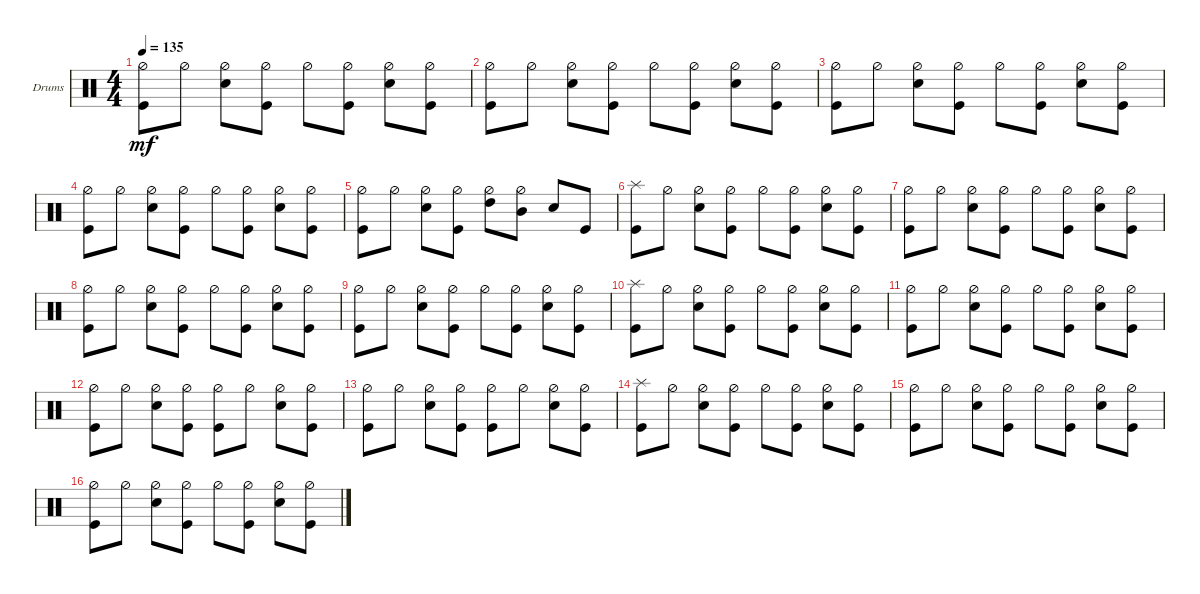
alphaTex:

\defaultSystemsLayout 4
\bracketExtendMode groupsimilarinstruments
\firstSystemTrackNameOrientation horizontal
\otherSystemsTrackNameOrientation horizontal
\track ("Drumkit" "Drums") {instrument percussion}
\staff {score}
\articulation defaults
\ts (4 4)
\tempo 135
\clef neutral
\ks c
("Kick (hit)" "Hi-Hat (half)").8{dy mf} "Hi-Hat (half)".8 ("Snare (hit) 2" "Hi-Hat (half)").8 ("Kick (hit)" "Hi-Hat (half)").8 "Hi-Hat (half)".8 ("Kick (hit)" "Hi-Hat (half)").8 ("Snare (hit) 2" "Hi-Hat (half)").8 ("Kick (hit)" "Hi-Hat (half)").8 |
("Kick (hit)" "Hi-Hat (half)").8 "Hi-Hat (half)".8 ("Snare (hit) 2" "Hi-Hat (half)").8 ("Kick (hit)" "Hi-Hat (half)").8 "Hi-Hat (half)".8 ("Kick (hit)" "Hi-Hat (half)").8 ("Snare (hit) 2" "Hi-Hat (half)").8 ("Kick (hit)" "Hi-Hat (half)").8 |
("Kick (hit)" "Hi-Hat (half)").8 "Hi-Hat (half)".8 ("Snare (hit) 2" "Hi-Hat (half)").8 ("Kick (hit)" "Hi-Hat (half)").8 "Hi-Hat (half)".8 ("Kick (hit)" "Hi-Hat (half)").8 ("Snare (hit) 2" "Hi-Hat (half)").8 ("Kick (hit)" "Hi-Hat (half)").8 |
("Kick (hit)" "Hi-Hat (half)").8 "Hi-Hat (half)".8 ("Snare (hit) 2" "Hi-Hat (half)").8 ("Kick (hit)" "Hi-Hat (half)").8 "Hi-Hat (half)".8 ("Kick (hit)" "Hi-Hat (half)").8 ("Snare (hit) 2" "Hi-Hat (half)").8 ("Kick (hit)" "Hi-Hat (half)").8 |
("Kick (hit)" "Hi-Hat (half)").8 "Hi-Hat (half)".8 ("Snare (hit) 2" "Hi-Hat (half)").8 ("Kick (hit)" "Hi-Hat (half)").8 ("Hi-Hat (half)" "High Tom (hit)").8 ("Hi-Hat (half)" "Mid Tom (hit)").8 "Snare (hit) 2".8 "Kick (hit)".8 |
("Kick (hit)" "Splash (hit)").8 "Hi-Hat (half)".8 ("Snare (hit) 2" "Hi-Hat (half)").8 ("Kick (hit)" "Hi-Hat (half)").8 "Hi-Hat (half)".8 ("Kick (hit)" "Hi-Hat (half)").8 ("Snare (hit) 2" "Hi-Hat (half)").8 ("Kick (hit)" "Hi-Hat (half)").8 |
("Kick (hit)" "Hi-Hat (half)").8 "Hi-Hat (half)".8 ("Snare (hit) 2" "Hi-Hat (half)").8 ("Kick (hit)" "Hi-Hat (half)").8 "Hi-Hat (half)".8 ("Kick (hit)" "Hi-Hat (half)").8 ("Snare (hit) 2" "Hi-Hat (half)").8 ("Kick (hit)" "Hi-Hat (half)").8 |
("Kick (hit)" "Hi-Hat (half)").8 "Hi-Hat (half)".8 ("Snare (hit) 2" "Hi-Hat (half)").8 ("Kick (hit)" "Hi-Hat (half)").8 "Hi-Hat (half)".8 ("Kick (hit)" "Hi-Hat (half)").8 ("Snare (hit) 2" "Hi-Hat (half)").8 ("Kick (hit)" "Hi-Hat (half)").8 |
("Kick (hit)" "Hi-Hat (half)").8 "Hi-Hat (half)".8 ("Snare (hit) 2" "Hi-Hat (half)").8 ("Kick (hit)" "Hi-Hat (half)").8 "Hi-Hat (half)".8 ("Kick (hit)" "Hi-Hat (half)").8 ("Snare (hit) 2" "Hi-Hat (half)").8 ("Kick (hit)" "Hi-Hat (half)").8 |
("Kick (hit)" "Splash (hit)").8 "Hi-Hat (half)".8 ("Snare (hit) 2" "Hi-Hat (half)").8 ("Kick (hit)" "Hi-Hat (half)").8 "Hi-Hat (half)".8 ("Kick (hit)" "Hi-Hat (half)").8 ("Snare (hit) 2" "Hi-Hat (half)").8 ("Kick (hit)" "Hi-Hat (half)").8 |
("Kick (hit)" "Hi-Hat (half)").8 "Hi-Hat (half)".8 ("Snare (hit) 2" "Hi-Hat (half)").8 ("Kick (hit)" "Hi-Hat (half)").8 "Hi-Hat (half)".8 ("Kick (hit)" "Hi-Hat (half)").8 ("Snare (hit) 2" "Hi-Hat (half)").8 ("Kick (hit)" "Hi-Hat (half)").8 |
("Kick (hit)" "Hi-Hat (half)").8 "Hi-Hat (half)".8 ("Snare (hit) 2" "Hi-Hat (half)").8 ("Kick (hit)" "Hi-Hat (half)").8 ("Hi-Hat (half)" "Kick (hit)").8 "Hi-Hat (half)".8 ("Snare (hit) 2" "Hi-Hat (half)").8 ("Kick (hit)" "Hi-Hat (half)").8 |
("Kick (hit)" "Hi-Hat (half)").8 "Hi-Hat (half)".8 ("Snare (hit) 2" "Hi-Hat (half)").8 ("Kick (hit)" "Hi-Hat (half)").8 ("Hi-Hat (half)" "Kick (hit)").8 "Hi-Hat (half)".8 ("Snare (hit) 2" "Hi-Hat (half)").8 ("Kick (hit)" "Hi-Hat (half)").8 |
("Kick (hit)" "Splash (hit)").8 "Hi-Hat (half)".8 ("Snare (hit) 2" "Hi-Hat (half)").8 ("Kick (hit)" "Hi-Hat (half)").8 "Hi-Hat (half)".8 ("Kick (hit)" "Hi-Hat (half)").8 ("Snare (hit) 2" "Hi-Hat (half)").8 ("Kick (hit)" "Hi-Hat (half)").8 |
("Kick (hit)" "Hi-Hat (half)").8 "Hi-Hat (half)".8 ("Snare (hit) 2" "Hi-Hat (half)").8 ("Kick (hit)" "Hi-Hat (half)").8 "Hi-Hat (half)".8 ("Kick (hit)" "Hi-Hat (half)").8 ("Snare (hit) 2" "Hi-Hat (half)").8 ("Kick (hit)" "Hi-Hat (half)").8 |
("Kick (hit)" "Hi-Hat (half)").8 "Hi-Hat (half)".8 ("Snare (hit) 2" "Hi-Hat (half)").8 ("Kick (hit)" "Hi-Hat (half)").8 "Hi-Hat (half)".8 ("Kick (hit)" "Hi-Hat (half)").8 ("Snare (hit) 2" "Hi-Hat (half)").8 ("Kick (hit)" "Hi-Hat (half)").8
